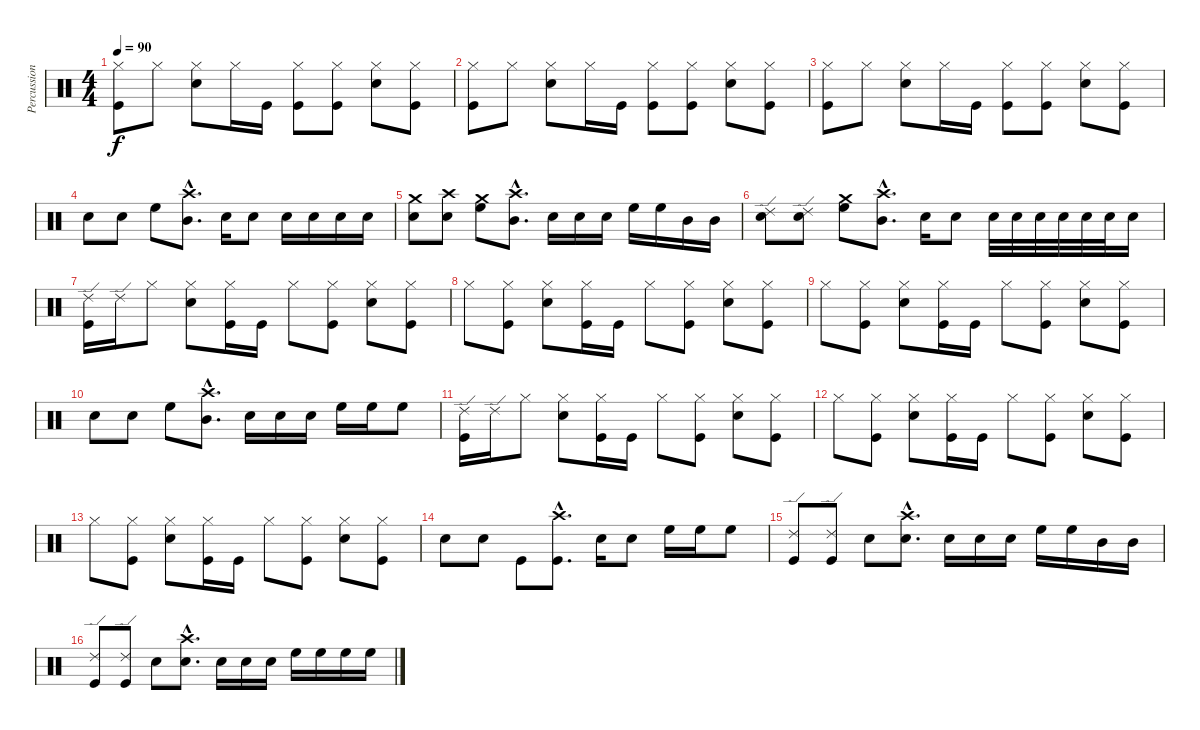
\track ("Percussion" "Percussion") {instrument percussion}
\staff {score}
\articulation defaults
\ts (4 4)
\tempo 90
\clef neutral
\ks c
("Hi-Hat (closed)" "Kick (hit)").8{dy f} "Hi-Hat (closed)".8 ("Hi-Hat (closed)" "Snare (hit) 2").8 "Hi-Hat (closed)".16 "Kick (hit)".16 ("Hi-Hat (closed)" "Kick (hit)").8 ("Hi-Hat (closed)" "Kick (hit)").8 ("Hi-Hat (closed)" "Snare (hit) 2").8 ("Hi-Hat (closed)" "Kick (hit)").8 |
("Hi-Hat (closed)" "Kick (hit)").8 "Hi-Hat (closed)".8 ("Hi-Hat (closed)" "Snare (hit) 2").8 "Hi-Hat (closed)".16 "Kick (hit)".16 ("Hi-Hat (closed)" "Kick (hit)").8 ("Hi-Hat (closed)" "Kick (hit)").8 ("Hi-Hat (closed)" "Snare (hit) 2").8 ("Hi-Hat (closed)" "Kick (hit)").8 |
("Hi-Hat (closed)" "Kick (hit)").8 "Hi-Hat (closed)".8 ("Hi-Hat (closed)" "Snare (hit) 2").8 "Hi-Hat (closed)".16 "Kick (hit)".16 ("Hi-Hat (closed)" "Kick (hit)").8 ("Hi-Hat (closed)" "Kick (hit)").8 ("Hi-Hat (closed)" "Snare (hit) 2").8 ("Hi-Hat (closed)" "Kick (hit)").8 |
"Snare (hit) 2".8 "Snare (hit) 2".8 "High Floor Tom (hit)".8 ("Crash high (hit)"{hac} "Mid Tom (hit)"{hac}).8{d} "Snare (hit) 2".16 "Snare (hit) 2".8 "Snare (hit) 2".16 "Snare (hit) 2".16 "Snare (hit) 2".16 "Snare (hit) 2".16 |
("Crash medium (hit)" "Snare (hit) 2").8 ("Crash high (hit)" "Snare (hit) 2").8 ("Crash medium (hit)" "High Floor Tom (hit)").8 ("Crash high (hit)"{hac} "Mid Tom (hit)"{hac}).8{d} "Snare (hit) 2".16 "Snare (hit) 2".16 "Snare (hit) 2".16 "High Floor Tom (hit)".16 "High Floor Tom (hit)".16 "Mid Tom (hit)".16 "Mid Tom (hit)".16 |
("Ride (edge) 2" "Snare (hit) 2").8 ("Ride (edge) 2" "Snare (hit) 2").8 ("Crash medium (hit)" "High Floor Tom (hit)").8 ("Crash high (hit)"{hac} "Mid Tom (hit)"{hac}).8{d} "Snare (hit) 2".16 "Snare (hit) 2".8 "Snare (hit) 2".32 "Snare (hit) 2".32 "Snare (hit) 2".32 "Snare (hit) 2".32 "Snare (hit) 2".32 "Snare (hit) 2".32 "Snare (hit) 2".16 |
("Ride (edge) 2" "Kick (hit)").16 "Ride (edge) 2".16 "Hi-Hat (closed)".8 ("Hi-Hat (closed)" "Snare (hit) 2").8 ("Hi-Hat (closed)" "Kick (hit)").16 "Kick (hit)".16 "Hi-Hat (closed)".8 ("Hi-Hat (closed)" "Kick (hit)").8 ("Hi-Hat (closed)" "Snare (hit) 2").8 ("Hi-Hat (closed)" "Kick (hit)").8 |
"Hi-Hat (closed)".8 ("Hi-Hat (closed)" "Kick (hit)").8 ("Hi-Hat (closed)" "Snare (hit) 2").8 ("Hi-Hat (closed)" "Kick (hit)").16 "Kick (hit)".16 "Hi-Hat (closed)".8 ("Hi-Hat (closed)" "Kick (hit)").8 ("Hi-Hat (closed)" "Snare (hit) 2").8 ("Hi-Hat (closed)" "Kick (hit)").8 |
"Hi-Hat (closed)".8 ("Hi-Hat (closed)" "Kick (hit)").8 ("Hi-Hat (closed)" "Snare (hit) 2").8 ("Hi-Hat (closed)" "Kick (hit)").16 "Kick (hit)".16 "Hi-Hat (closed)".8 ("Hi-Hat (closed)" "Kick (hit)").8 ("Hi-Hat (closed)" "Snare (hit) 2").8 ("Hi-Hat (closed)" "Kick (hit)").8 |
"Snare (hit) 2".8 "Snare (hit) 2".8 "High Floor Tom (hit)".8 ("Crash high (hit)"{hac} "Mid Tom (hit)"{hac}).8{d} "Snare (hit) 2".16 "Snare (hit) 2".16 "Snare (hit) 2".16 "High Floor Tom (hit)".16 "High Floor Tom (hit)".16 "High Floor Tom (hit)".8 |
("Ride (edge) 2" "Kick (hit)").16 "Ride (edge) 2".16 "Hi-Hat (closed)".8 ("Hi-Hat (closed)" "Snare (hit) 2").8 ("Hi-Hat (closed)" "Kick (hit)").16 "Kick (hit)".16 "Hi-Hat (closed)".8 ("Hi-Hat (closed)" "Kick (hit)").8 ("Hi-Hat (closed)" "Snare (hit) 2").8 ("Hi-Hat (closed)" "Kick (hit)").8 |
"Hi-Hat (closed)".8 ("Hi-Hat (closed)" "Kick (hit)").8 ("Hi-Hat (closed)" "Snare (hit) 2").8 ("Hi-Hat (closed)" "Kick (hit)").16 "Kick (hit)".16 "Hi-Hat (closed)".8 ("Hi-Hat (closed)" "Kick (hit)").8 ("Hi-Hat (closed)" "Snare (hit) 2").8 ("Hi-Hat (closed)" "Kick (hit)").8 |
"Hi-Hat (closed)".8 ("Hi-Hat (closed)" "Kick (hit)").8 ("Hi-Hat (closed)" "Snare (hit) 2").8 ("Hi-Hat (closed)" "Kick (hit)").16 "Kick (hit)".16 "Hi-Hat (closed)".8 ("Hi-Hat (closed)" "Kick (hit)").8 ("Hi-Hat (closed)" "Snare (hit) 2").8 ("Hi-Hat (closed)" "Kick (hit)").8 |
"Snare (hit) 2".8 "Snare (hit) 2".8 "Kick (hit)".8 ("Crash high (hit)"{hac} "Kick (hit)"{hac}).8{d} "Snare (hit) 2".16 "Snare (hit) 2".8 "High Floor Tom (hit)".16 "High Floor Tom (hit)".16 "High Floor Tom (hit)".8 |
("Ride (edge) 2" "Kick (hit)").8 ("Ride (edge) 2" "Kick (hit)").8 "Snare (hit) 2".8 ("Crash high (hit)"{hac} "Snare (hit) 2"{hac}).8{d} "Snare (hit) 2".16 "Snare (hit) 2".16 "Snare (hit) 2".16 "High Floor Tom (hit)".16 "High Floor Tom (hit)".16 "Mid Tom (hit)".16 "Mid Tom (hit)".16 |
("Ride (edge) 2" "Kick (hit)").8 ("Ride (edge) 2" "Kick (hit)").8 "Snare (hit) 2".8 ("Crash high (hit)"{hac} "Snare (hit) 2"{hac}).8{d} "Snare (hit) 2".16 "Snare (hit) 2".16 "Snare (hit) 2".16 "High Floor Tom (hit)".16 "High Floor Tom (hit)".16 "High Floor Tom (hit)".16 "High Floor Tom (hit)".16
